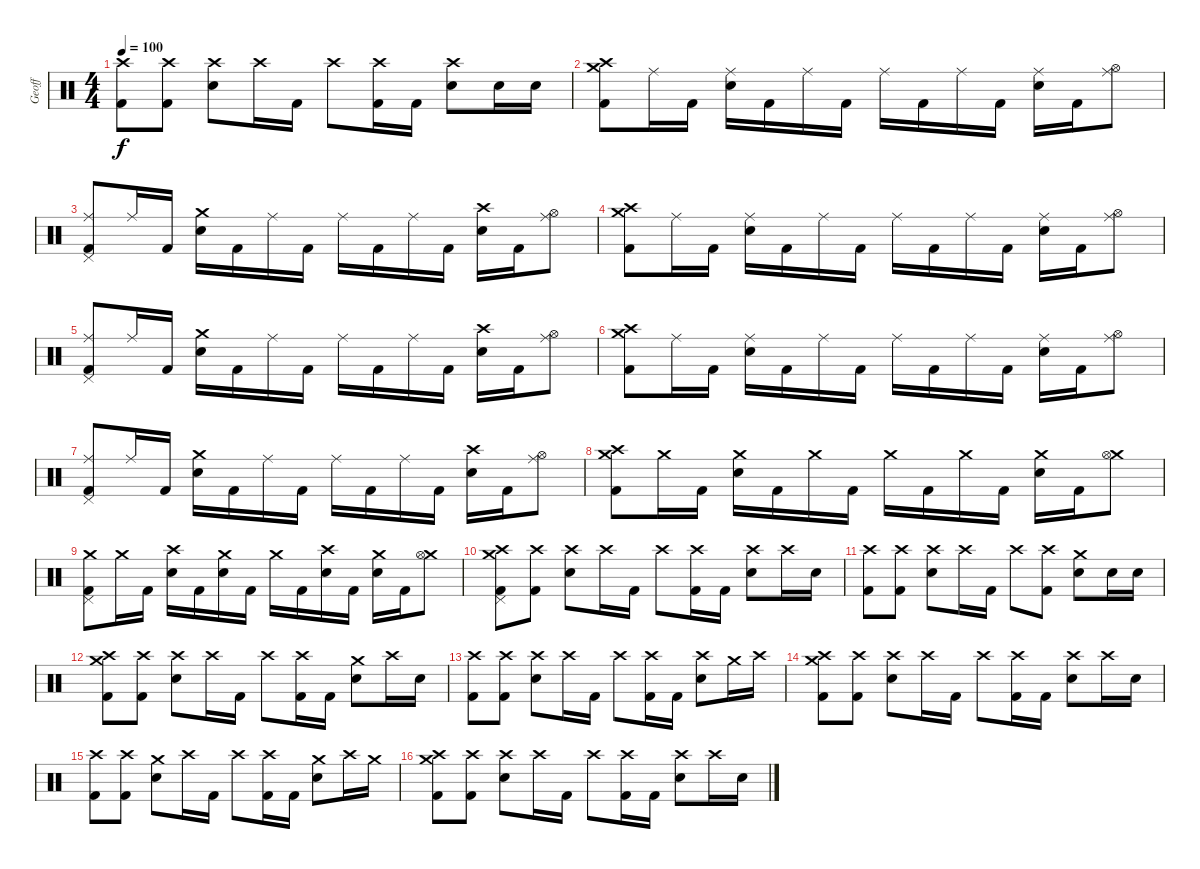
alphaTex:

\track ("Geoff" "Geoff") {instrument percussion}
\staff {score}
\articulation defaults
\ts (4 4)
\tempo 100
\clef neutral
\ks c
("Crash high (hit)" "Kick (hit) 2").8{dy f} ("Crash high (hit)" "Kick (hit) 2").8 ("Crash high (hit)" "Electric Snare (hit)").8 "Crash high (hit)".16 "Kick (hit) 2".16 "Crash high (hit)".8 ("Crash high (hit)" "Kick (hit) 2").16 "Kick (hit) 2".16 ("Crash high (hit)" "Electric Snare (hit)").8 "Electric Snare (hit)".16 "Electric Snare (hit)".16 |
("Crash high (hit)" "Crash medium (hit)" "Kick (hit) 2").8 "Ride (middle)".16 "Kick (hit) 2".16 ("Ride (middle)" "Electric Snare (hit)").16 "Kick (hit) 2".16 "Ride (middle)".16 "Kick (hit) 2".16 "Ride (middle)".16 "Kick (hit) 2".16 "Ride (middle)".16 "Kick (hit) 2".16 ("Ride (middle)" "Electric Snare (hit)").16 "Kick (hit) 2".16 ("Ride (middle)" "Hi-Hat (open)").8 |
("Ride (middle)" "Pedal Hi-Hat (hit)" "Kick (hit) 2").8 "Ride (middle)".16 "Kick (hit) 2".16 ("Crash medium (hit)" "Electric Snare (hit)").16 "Kick (hit) 2".16 "Ride (middle)".16 "Kick (hit) 2".16 "Ride (middle)".16 "Kick (hit) 2".16 "Ride (middle)".16 "Kick (hit) 2".16 ("Crash high (hit)" "Electric Snare (hit)").16 "Kick (hit) 2".16 ("Ride (middle)" "Hi-Hat (open)").8 |
("Crash high (hit)" "Crash medium (hit)" "Kick (hit) 2").8 "Ride (middle)".16 "Kick (hit) 2".16 ("Ride (middle)" "Electric Snare (hit)").16 "Kick (hit) 2".16 "Ride (middle)".16 "Kick (hit) 2".16 "Ride (middle)".16 "Kick (hit) 2".16 "Ride (middle)".16 "Kick (hit) 2".16 ("Ride (middle)" "Electric Snare (hit)").16 "Kick (hit) 2".16 ("Ride (middle)" "Hi-Hat (open)").8 |
("Ride (middle)" "Pedal Hi-Hat (hit)" "Kick (hit) 2").8 "Ride (middle)".16 "Kick (hit) 2".16 ("Crash medium (hit)" "Electric Snare (hit)").16 "Kick (hit) 2".16 "Ride (middle)".16 "Kick (hit) 2".16 "Ride (middle)".16 "Kick (hit) 2".16 "Ride (middle)".16 "Kick (hit) 2".16 ("Crash high (hit)" "Electric Snare (hit)").16 "Kick (hit) 2".16 ("Ride (middle)" "Hi-Hat (open)").8 |
("Crash high (hit)" "Crash medium (hit)" "Kick (hit) 2").8 "Ride (middle)".16 "Kick (hit) 2".16 ("Ride (middle)" "Electric Snare (hit)").16 "Kick (hit) 2".16 "Ride (middle)".16 "Kick (hit) 2".16 "Ride (middle)".16 "Kick (hit) 2".16 "Ride (middle)".16 "Kick (hit) 2".16 ("Ride (middle)" "Electric Snare (hit)").16 "Kick (hit) 2".16 ("Ride (middle)" "Hi-Hat (open)").8 |
("Ride (middle)" "Pedal Hi-Hat (hit)" "Kick (hit) 2").8 "Ride (middle)".16 "Kick (hit) 2".16 ("Crash medium (hit)" "Electric Snare (hit)").16 "Kick (hit) 2".16 "Ride (middle)".16 "Kick (hit) 2".16 "Ride (middle)".16 "Kick (hit) 2".16 "Ride (middle)".16 "Kick (hit) 2".16 ("Crash high (hit)" "Electric Snare (hit)").16 "Kick (hit) 2".16 ("Ride (middle)" "Hi-Hat (open)").8 |
("Crash high (hit)" "Crash medium (hit)" "Kick (hit) 2").8 "Crash medium (hit)".16 "Kick (hit) 2".16 ("Crash medium (hit)" "Electric Snare (hit)").16 "Kick (hit) 2".16 "Crash medium (hit)".16 "Kick (hit) 2".16 "Crash medium (hit)".16 "Kick (hit) 2".16 "Crash medium (hit)".16 "Kick (hit) 2".16 ("Crash medium (hit)" "Electric Snare (hit)").16 "Kick (hit) 2".16 ("Crash medium (hit)" "Hi-Hat (open)").8 |
("Crash medium (hit)" "Pedal Hi-Hat (hit)" "Kick (hit) 2").8 "Crash medium (hit)".16 "Kick (hit) 2".16 ("Crash high (hit)" "Electric Snare (hit)").16 "Kick (hit) 2".16 ("Crash medium (hit)" "Electric Snare (hit)").16 "Kick (hit) 2".16 "Crash medium (hit)".16 "Kick (hit) 2".16 ("Crash high (hit)" "Electric Snare (hit)").16 "Kick (hit) 2".16 ("Crash medium (hit)" "Electric Snare (hit)").16 "Kick (hit) 2".16 ("Crash medium (hit)" "Hi-Hat (open)").8 |
("Crash high (hit)" "Crash medium (hit)" "Pedal Hi-Hat (hit)" "Kick (hit) 2").8 ("Crash high (hit)" "Kick (hit) 2").8 ("Crash high (hit)" "Electric Snare (hit)").8 "Crash high (hit)".16 "Kick (hit) 2".16 "Crash high (hit)".8 ("Crash high (hit)" "Kick (hit) 2").16 "Kick (hit) 2".16 ("Crash high (hit)" "Electric Snare (hit)").8 "Crash high (hit)".16 "Electric Snare (hit)".16 |
("Crash high (hit)" "Kick (hit) 2").8 ("Crash high (hit)" "Kick (hit) 2").8 ("Crash high (hit)" "Electric Snare (hit)").8 "Crash high (hit)".16 "Kick (hit) 2".16 "Crash high (hit)".8 ("Crash high (hit)" "Kick (hit) 2").8 ("Crash medium (hit)" "Electric Snare (hit)").8 "Electric Snare (hit)".16 "Electric Snare (hit)".16 |
("Crash high (hit)" "Crash medium (hit)" "Kick (hit) 2").8 ("Crash high (hit)" "Kick (hit) 2").8 ("Crash high (hit)" "Electric Snare (hit)").8 "Crash high (hit)".16 "Kick (hit) 2".16 "Crash high (hit)".8 ("Crash high (hit)" "Kick (hit) 2").16 "Kick (hit) 2".16 ("Crash medium (hit)" "Electric Snare (hit)").8 "Crash high (hit)".16 "Electric Snare (hit)".16 |
("Crash high (hit)" "Kick (hit) 2").8 ("Crash high (hit)" "Kick (hit) 2").8 ("Crash high (hit)" "Electric Snare (hit)").8 "Crash high (hit)".16 "Kick (hit) 2".16 "Crash high (hit)".8 ("Crash high (hit)" "Kick (hit) 2").16 "Kick (hit) 2".16 ("Crash high (hit)" "Electric Snare (hit)").8 "Crash medium (hit)".16 "Crash high (hit)".16 |
("Crash high (hit)" "Crash medium (hit)" "Kick (hit) 2").8 ("Crash high (hit)" "Kick (hit) 2").8 ("Crash high (hit)" "Electric Snare (hit)").8 "Crash high (hit)".16 "Kick (hit) 2".16 "Crash high (hit)".8 ("Crash high (hit)" "Kick (hit) 2").16 "Kick (hit) 2".16 ("Crash high (hit)" "Electric Snare (hit)").8 "Crash high (hit)".16 "Electric Snare (hit)".16 |
("Crash high (hit)" "Kick (hit) 2").8 ("Crash high (hit)" "Kick (hit) 2").8 ("Crash medium (hit)" "Electric Snare (hit)").8 "Crash high (hit)".16 "Kick (hit) 2".16 "Crash high (hit)".8 ("Crash high (hit)" "Kick (hit) 2").16 "Kick (hit) 2".16 ("Crash medium (hit)" "Electric Snare (hit)").8 "Crash high (hit)".16 "Crash medium (hit)".16 |
("Crash high (hit)" "Crash medium (hit)" "Kick (hit) 2").8 ("Crash high (hit)" "Kick (hit) 2").8 ("Crash high (hit)" "Electric Snare (hit)").8 "Crash high (hit)".16 "Kick (hit) 2".16 "Crash high (hit)".8 ("Crash high (hit)" "Kick (hit) 2").16 "Kick (hit) 2".16 ("Crash high (hit)" "Electric Snare (hit)").8 "Crash high (hit)".16 "Electric Snare (hit)".16
